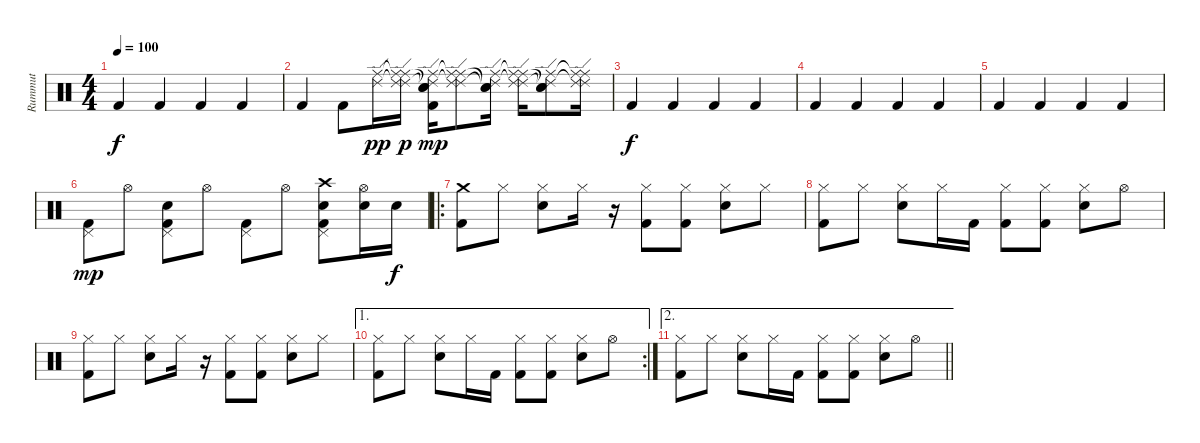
\track ("Rummut" "Rummut") {instrument percussion}
\staff {score}
\articulation defaults
\ts (4 4)
\tempo 100
\clef neutral
\ks c "Kick (hit) 2".4{dy f} "Kick (hit) 2".4 "Kick (hit) 2".4 "Kick (hit) 2".4
|
"Kick (hit) 2".4 "Kick (hit) 2".8 ("Ride (middle)" "Ride (edge) 2").16{dy pp} ("Ride (middle)"{t} "Ride (edge) 2"{t} "Ride (middle)" "Ride (edge) 2").16{dy p} ("Ride (middle)" "Ride (edge) 2" "Snare (hit)"{t} "Snare (hit)"{t} "Kick (hit) 2").16{dy mp} ("Ride (middle)"{t} "Ride (edge) 2"{t} "Ride (middle)" "Ride (edge) 2").8 ("Ride (middle)" "Ride (edge) 2" "Snare (hit)"{t} "Snare (hit)"{t}).16 ("Ride (middle)"{t} "Ride (edge) 2"{t} "Ride (middle)" "Ride (edge) 2").16 ("Ride (middle)" "Ride (edge) 2" "Snare (hit)"{t} "Snare (hit)"{t}).8 ("Ride (middle)"{t} "Ride (edge) 2"{t} "Ride (middle)" "Ride (edge) 2").16 |
"Kick (hit) 2".4{dy f} "Kick (hit) 2".4 "Kick (hit) 2".4 "Kick (hit) 2".4 |
"Kick (hit) 2".4 "Kick (hit) 2".4 "Kick (hit) 2".4 "Kick (hit) 2".4 |
"Kick (hit) 2".4 "Kick (hit) 2".4 "Kick (hit) 2".4 "Kick (hit) 2".4 |
("Pedal Hi-Hat (hit)" "Kick (hit) 2").8{dy mp} "Hi-Hat (open)".8 ("Snare (hit) 2" "Pedal Hi-Hat (hit)" "Kick (hit) 2").8 "Hi-Hat (open)".8 ("Pedal Hi-Hat (hit)" "Kick (hit) 2").8 "Hi-Hat (open)".8 ("Crash high (hit)" "Snare (hit) 2" "Pedal Hi-Hat (hit)" "Kick (hit) 2").8 ("Snare (hit) 2" "Hi-Hat (open)").16 "Snare (hit) 2".16{dy f} |
\ro
("Crash medium (hit)" "Kick (hit) 2").8 "Hi-Hat (closed)".8 ("Hi-Hat (closed)" "Snare (hit) 2").8 "Hi-Hat (closed)".16 r.16 ("Hi-Hat (closed)" "Kick (hit) 2").8 ("Hi-Hat (closed)" "Kick (hit) 2").8 ("Hi-Hat (closed)" "Snare (hit) 2").8 "Hi-Hat (closed)".8 |
("Hi-Hat (closed)" "Kick (hit) 2").8 "Hi-Hat (closed)".8 ("Hi-Hat (closed)" "Snare (hit) 2").8 "Hi-Hat (closed)".16 "Kick (hit) 2".16 ("Hi-Hat (closed)" "Kick (hit) 2").8 ("Hi-Hat (closed)" "Kick (hit) 2").8 ("Hi-Hat (closed)" "Snare (hit) 2").8 "Hi-Hat (open)".8 |
("Hi-Hat (closed)" "Kick (hit) 2").8 "Hi-Hat (closed)".8 ("Hi-Hat (closed)" "Snare (hit) 2").8 "Hi-Hat (closed)".16 r.16 ("Hi-Hat (closed)" "Kick (hit) 2").8 ("Hi-Hat (closed)" "Kick (hit) 2").8 ("Hi-Hat (closed)" "Snare (hit) 2").8 "Hi-Hat (closed)".8 |
\ae 1
\rc 2
("Hi-Hat (closed)" "Kick (hit) 2").8 "Hi-Hat (closed)".8 ("Hi-Hat (closed)" "Snare (hit) 2").8 "Hi-Hat (closed)".16 "Kick (hit) 2".16 ("Hi-Hat (closed)" "Kick (hit) 2").8 ("Hi-Hat (closed)" "Kick (hit) 2").8 ("Hi-Hat (closed)" "Snare (hit) 2").8 "Hi-Hat (open)".8 |
\ae 2
\barLineRight lightlight
("Hi-Hat (closed)" "Kick (hit) 2").8 "Hi-Hat (closed)".8 ("Hi-Hat (closed)" "Snare (hit) 2").8 "Hi-Hat (closed)".16 "Kick (hit) 2".16 ("Hi-Hat (closed)" "Kick (hit) 2").8 ("Hi-Hat (closed)" "Kick (hit) 2").8 ("Hi-Hat (closed)" "Snare (hit) 2").8 "Hi-Hat (open)".8
